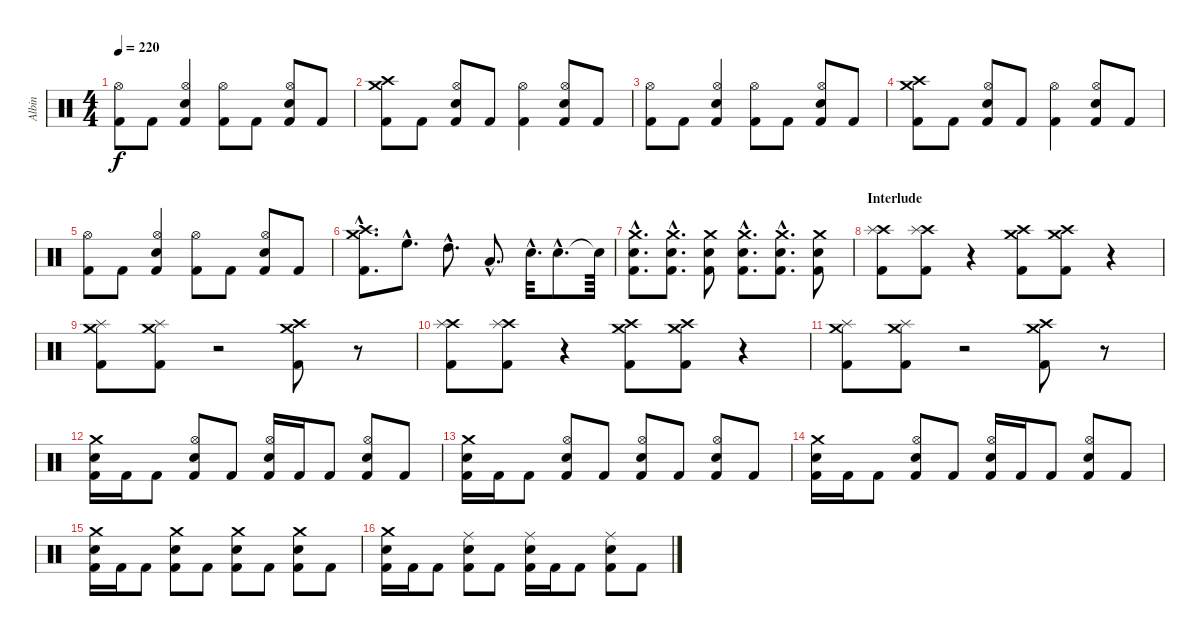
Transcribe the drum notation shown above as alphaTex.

\track ("Albin" "Albin") {instrument percussion}
\staff {score}
\articulation defaults
\ts (4 4)
\tempo 220
\clef neutral
\ks c
("Kick (hit) 2" "Hi-Hat (open)").8{dy f} "Kick (hit) 2".8 ("Kick (hit) 2" "Electric Snare (hit)" "Hi-Hat (open)").4 ("Kick (hit) 2" "Hi-Hat (open)").8 "Kick (hit) 2".8 ("Kick (hit) 2" "Electric Snare (hit)" "Hi-Hat (open)").8 "Kick (hit) 2".8 |
("Kick (hit) 2" "Crash high (hit)" "Crash medium (hit)").8 "Kick (hit) 2".8 ("Kick (hit) 2" "Electric Snare (hit)" "Hi-Hat (open)").8 "Kick (hit) 2".8 ("Kick (hit) 2" "Hi-Hat (open)").4 ("Kick (hit) 2" "Electric Snare (hit)" "Hi-Hat (open)").8 "Kick (hit) 2".8 |
("Kick (hit) 2" "Hi-Hat (open)").8 "Kick (hit) 2".8 ("Kick (hit) 2" "Electric Snare (hit)" "Hi-Hat (open)").4 ("Kick (hit) 2" "Hi-Hat (open)").8 "Kick (hit) 2".8 ("Kick (hit) 2" "Electric Snare (hit)" "Hi-Hat (open)").8 "Kick (hit) 2".8 |
("Kick (hit) 2" "Crash high (hit)" "Crash medium (hit)").8 "Kick (hit) 2".8 ("Kick (hit) 2" "Electric Snare (hit)" "Hi-Hat (open)").8 "Kick (hit) 2".8 ("Kick (hit) 2" "Hi-Hat (open)").4 ("Kick (hit) 2" "Electric Snare (hit)" "Hi-Hat (open)").8 "Kick (hit) 2".8 |
("Kick (hit) 2" "Hi-Hat (open)").8 "Kick (hit) 2".8 ("Kick (hit) 2" "Electric Snare (hit)" "Hi-Hat (open)").4 ("Kick (hit) 2" "Hi-Hat (open)").8 "Kick (hit) 2".8 ("Kick (hit) 2" "Electric Snare (hit)" "Hi-Hat (open)").8 "Kick (hit) 2".8 |
("Kick (hit) 2"{hac} "Crash high (hit)"{hac} "Crash medium (hit)"{hac}).8{d} "High Floor Tom (hit)"{hac}.8{d} "High Tom (hit)"{hac}.8{d} "Low Tom (hit)"{hac}.8{d} "Electric Snare (hit)"{hac}.32{d} "Electric Snare (hit)"{hac}.8{d} "Snare (hit)"{t}.64 |
("Kick (hit) 2"{hac} "Electric Snare (hit)"{hac} "Crash medium (hit)"{hac}).8{d} ("Kick (hit) 2"{hac} "Electric Snare (hit)"{hac} "Crash medium (hit)"{hac}).8{d} ("Kick (hit) 2" "Electric Snare (hit)" "Crash medium (hit)").8 ("Kick (hit) 2"{hac} "Electric Snare (hit)"{hac} "Crash medium (hit)"{hac}).8{d} ("Kick (hit) 2"{hac} "Electric Snare (hit)"{hac} "Crash medium (hit)"{hac}).8{d} ("Kick (hit) 2" "Electric Snare (hit)" "Crash medium (hit)").8 |
\section ("" "Interlude")
("Kick (hit) 2" "Crash high (hit)" "Splash (hit)").8 ("Kick (hit) 2" "Crash high (hit)" "Splash (hit)").8 r.4 ("Kick (hit) 2" "Crash high (hit)" "Crash medium (hit)").8 ("Kick (hit) 2" "Crash high (hit)" "Crash medium (hit)").8 r.4 |
("Kick (hit) 2" "Splash (hit)" "Crash medium (hit)").8 ("Kick (hit) 2" "Splash (hit)" "Crash medium (hit)").8 r.2 ("Kick (hit) 2" "Crash high (hit)" "Crash medium (hit)").8 r.8 |
("Kick (hit) 2" "Crash high (hit)" "Splash (hit)").8 ("Kick (hit) 2" "Crash high (hit)" "Splash (hit)").8 r.4 ("Kick (hit) 2" "Crash high (hit)" "Crash medium (hit)").8 ("Kick (hit) 2" "Crash high (hit)" "Crash medium (hit)").8 r.4 |
("Kick (hit) 2" "Splash (hit)" "Crash medium (hit)").8 ("Kick (hit) 2" "Splash (hit)" "Crash medium (hit)").8 r.2 ("Kick (hit) 2" "Crash high (hit)" "Crash medium (hit)").8 r.8 |
("Kick (hit) 2" "Electric Snare (hit)" "Crash medium (hit)").16 "Kick (hit) 2".16 "Kick (hit) 2".8 ("Kick (hit) 2" "Electric Snare (hit)" "Hi-Hat (open)").8 "Kick (hit) 2".8 ("Kick (hit) 2" "Electric Snare (hit)" "Hi-Hat (open)").16 "Kick (hit) 2".16 "Kick (hit) 2".8 ("Kick (hit) 2" "Electric Snare (hit)" "Hi-Hat (open)").8 "Kick (hit) 2".8 |
("Kick (hit) 2" "Electric Snare (hit)" "Crash medium (hit)").16 "Kick (hit) 2".16 "Kick (hit) 2".8 ("Kick (hit) 2" "Electric Snare (hit)" "Hi-Hat (open)").8 "Kick (hit) 2".8 ("Kick (hit) 2" "Electric Snare (hit)" "Hi-Hat (open)").8 "Kick (hit) 2".8 ("Kick (hit) 2" "Electric Snare (hit)" "Hi-Hat (open)").8 "Kick (hit) 2".8 |
("Kick (hit) 2" "Electric Snare (hit)" "Crash medium (hit)").16 "Kick (hit) 2".16 "Kick (hit) 2".8 ("Kick (hit) 2" "Electric Snare (hit)" "Hi-Hat (open)").8 "Kick (hit) 2".8 ("Kick (hit) 2" "Electric Snare (hit)" "Hi-Hat (open)").16 "Kick (hit) 2".16 "Kick (hit) 2".8 ("Kick (hit) 2" "Electric Snare (hit)" "Hi-Hat (open)").8 "Kick (hit) 2".8 |
("Kick (hit) 2" "Electric Snare (hit)" "Crash medium (hit)").16 "Kick (hit) 2".16 "Kick (hit) 2".8 ("Kick (hit) 2" "Electric Snare (hit)" "Crash medium (hit)").8 "Kick (hit) 2".8 ("Kick (hit) 2" "Electric Snare (hit)" "Crash medium (hit)").8 "Kick (hit) 2".8 ("Kick (hit) 2" "Electric Snare (hit)" "Crash medium (hit)").8 "Kick (hit) 2".8 |
("Kick (hit) 2" "Electric Snare (hit)" "Crash medium (hit)").16 "Kick (hit) 2".16 "Kick (hit) 2".8 ("Kick (hit) 2" "Electric Snare (hit)" "Ride (middle)").8 "Kick (hit) 2".8 ("Kick (hit) 2" "Electric Snare (hit)" "Ride (middle)").16 "Kick (hit) 2".16 "Kick (hit) 2".8 ("Kick (hit) 2" "Electric Snare (hit)" "Ride (middle)").8 "Kick (hit) 2".8
